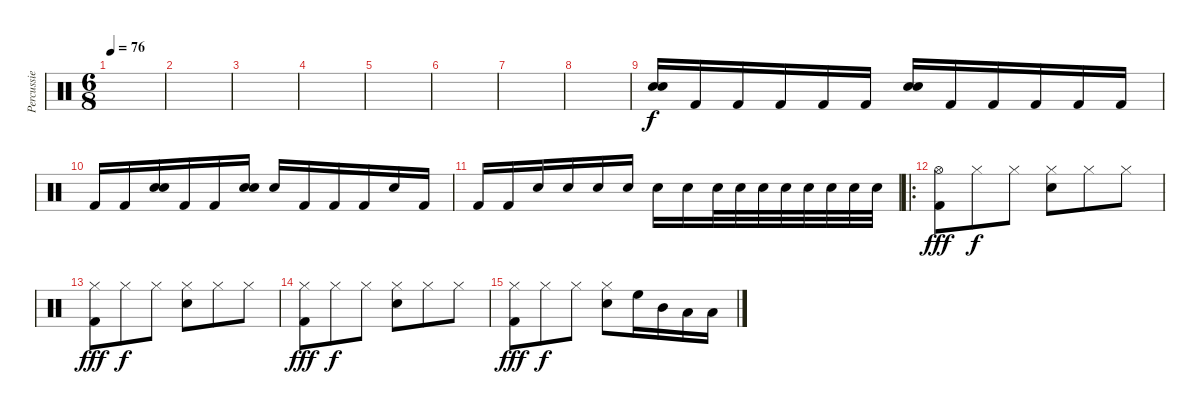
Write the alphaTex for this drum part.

\track ("Percussie" "Percussie") {instrument percussion}
\staff {score}
\articulation defaults
\ts (6 8)
\tempo 76
\clef neutral
\ks c
|
|
|
|
|
|
|
|
("Snare (hit) 2" "Snare (hit) 2").16{bd 480} "Kick (hit) 2".16 "Kick (hit) 2".16 "Kick (hit) 2".16 "Kick (hit) 2".16 "Kick (hit) 2".16 ("Snare (hit) 2" "Snare (hit) 2").16{bd 480} "Kick (hit) 2".16 "Kick (hit) 2".16 "Kick (hit) 2".16 "Kick (hit) 2".16 "Kick (hit) 2".16 |
"Kick (hit) 2".16 "Kick (hit) 2".16 ("Snare (hit) 2" "Snare (hit) 2").16{bd 480} "Kick (hit) 2".16 "Kick (hit) 2".16 ("Snare (hit) 2" "Snare (hit) 2").16{bd 480} "Snare (hit) 2".16 "Kick (hit) 2".16 "Kick (hit) 2".16 "Kick (hit) 2".16 "Snare (hit) 2".16 "Kick (hit) 2".16 |
"Kick (hit) 2".16 "Kick (hit) 2".16 "Snare (hit) 2".16 "Snare (hit) 2".16 "Snare (hit) 2".16 "Snare (hit) 2".16 "Snare (hit) 2".16 "Snare (hit) 2".16 "Snare (hit) 2".32 "Snare (hit) 2".32 "Snare (hit) 2".32 "Snare (hit) 2".32 "Snare (hit) 2".32 "Snare (hit) 2".32 "Snare (hit) 2".32 "Snare (hit) 2".32 |
\ro
("Kick (hit) 2" "Hi-Hat (open)").8{dy fff} "Hi-Hat (closed)".8{dy f} "Hi-Hat (closed)".8 ("Snare (hit) 2" "Hi-Hat (closed)").8 "Hi-Hat (closed)".8 "Hi-Hat (closed)".8 |
("Kick (hit) 2" "Hi-Hat (closed)").8{dy fff} "Hi-Hat (closed)".8{dy f} "Hi-Hat (closed)".8 ("Snare (hit) 2" "Hi-Hat (closed)").8 "Hi-Hat (closed)".8 "Hi-Hat (closed)".8 |
("Kick (hit) 2" "Hi-Hat (closed)").8{dy fff} "Hi-Hat (closed)".8{dy f} "Hi-Hat (closed)".8 ("Snare (hit) 2" "Hi-Hat (closed)").8 "Hi-Hat (closed)".8 "Hi-Hat (closed)".8 |
("Kick (hit) 2" "Hi-Hat (closed)").8{dy fff} "Hi-Hat (closed)".8{dy f} "Hi-Hat (closed)".8 ("Snare (hit) 2" "Hi-Hat (closed)").8 "High Floor Tom (hit)".16 "Mid Tom (hit)".16 "Low Tom (hit)".16 "Low Floor Tom (hit)".16
